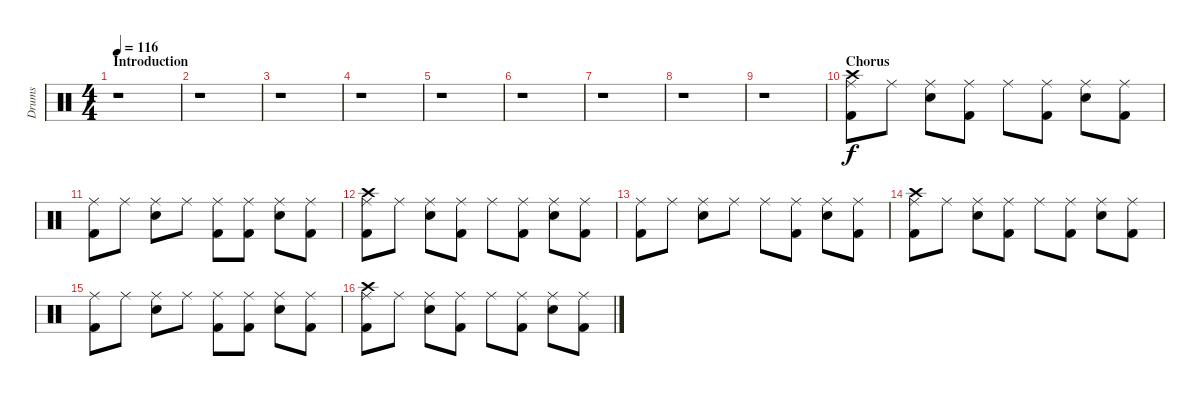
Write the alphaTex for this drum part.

\track ("Drums" "Drums") {instrument percussion}
\staff {score}
\articulation defaults
\ts (4 4)
\section ("" "Introduction")
\tempo 116
\clef neutral
\ks c
r.1{dy f} |
r.1 |
r.1 |
r.1 |
r.1 |
r.1 |
r.1 |
r.1 |
r.1 |
\section ("" "Chorus")
("Crash high (hit)" "Ride (middle)" "Kick (hit) 2").8 "Ride (middle)".8 ("Ride (middle)" "Snare (hit) 2").8 ("Ride (middle)" "Kick (hit) 2").8 "Ride (middle)".8 ("Ride (middle)" "Kick (hit) 2").8 ("Ride (middle)" "Snare (hit) 2").8 ("Ride (middle)" "Kick (hit) 2").8 |
("Ride (middle)" "Kick (hit) 2").8 "Ride (middle)".8 ("Ride (middle)" "Snare (hit) 2").8 "Ride (middle)".8 ("Ride (middle)" "Kick (hit) 2").8 ("Ride (middle)" "Kick (hit) 2").8 ("Ride (middle)" "Snare (hit) 2").8 ("Ride (middle)" "Kick (hit) 2").8 |
("Crash high (hit)" "Ride (middle)" "Kick (hit) 2").8 "Ride (middle)".8 ("Ride (middle)" "Snare (hit) 2").8 ("Ride (middle)" "Kick (hit) 2").8 "Ride (middle)".8 ("Ride (middle)" "Kick (hit) 2").8 ("Ride (middle)" "Snare (hit) 2").8 ("Ride (middle)" "Kick (hit) 2").8 |
("Ride (middle)" "Kick (hit) 2").8 "Ride (middle)".8 ("Ride (middle)" "Snare (hit) 2").8 "Ride (middle)".8 "Ride (middle)".8 ("Ride (middle)" "Kick (hit) 2").8 ("Ride (middle)" "Snare (hit) 2").8 ("Ride (middle)" "Kick (hit) 2").8 |
("Crash high (hit)" "Ride (middle)" "Kick (hit) 2").8 "Ride (middle)".8 ("Ride (middle)" "Snare (hit) 2").8 ("Ride (middle)" "Kick (hit) 2").8 "Ride (middle)".8 ("Ride (middle)" "Kick (hit) 2").8 ("Ride (middle)" "Snare (hit) 2").8 ("Ride (middle)" "Kick (hit) 2").8 |
("Ride (middle)" "Kick (hit) 2").8 "Ride (middle)".8 ("Ride (middle)" "Snare (hit) 2").8 "Ride (middle)".8 ("Ride (middle)" "Kick (hit) 2").8 ("Ride (middle)" "Kick (hit) 2").8 ("Ride (middle)" "Snare (hit) 2").8 ("Ride (middle)" "Kick (hit) 2").8 |
("Crash high (hit)" "Ride (middle)" "Kick (hit) 2").8 "Ride (middle)".8 ("Ride (middle)" "Snare (hit) 2").8 ("Ride (middle)" "Kick (hit) 2").8 "Ride (middle)".8 ("Ride (middle)" "Kick (hit) 2").8 ("Ride (middle)" "Snare (hit) 2").8 ("Ride (middle)" "Kick (hit) 2").8
